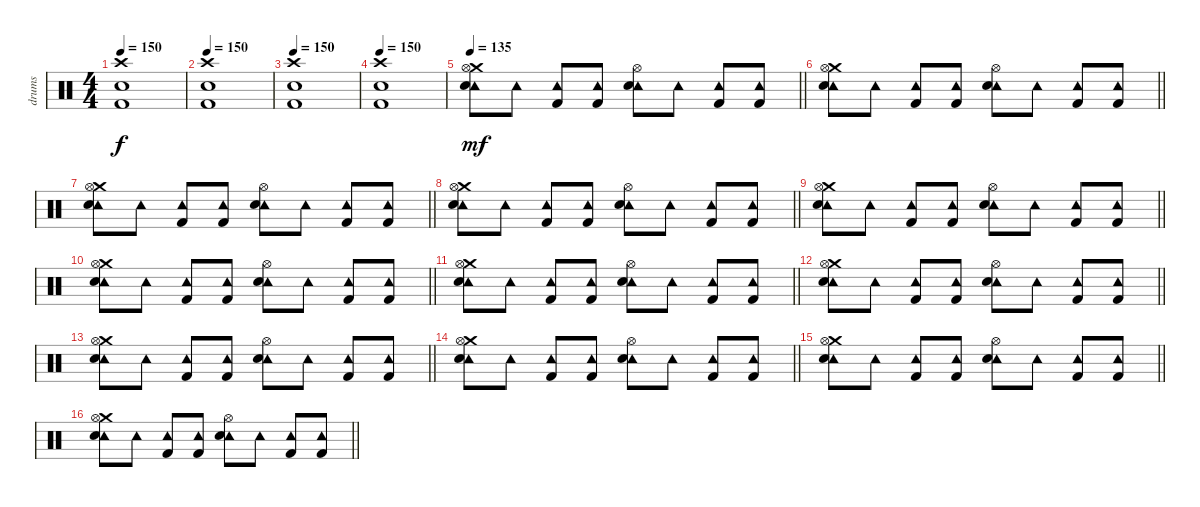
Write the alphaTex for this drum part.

\track ("drums" "drums") {instrument percussion}
\staff {score}
\articulation defaults
\ts (4 4)
\tempo 150
\clef neutral
\ks c
("Crash high (hit)" "Snare (hit) 2" "Kick (hit) 2").1{dy f} |
\tempo 150
("Crash high (hit)" "Snare (hit) 2" "Kick (hit) 2").1 |
\tempo 150
("Crash high (hit)" "Snare (hit) 2" "Kick (hit) 2").1 |
\tempo 150
("Crash high (hit)" "Snare (hit) 2" "Kick (hit) 2").1 |
\tempo 135
\barLineRight lightlight
("Tambourine (hit)" "Crash medium (hit)" "Hi-Hat (open)" "Electric Snare (hit)").8{dy mf} "Tambourine (hit)".8 ("Tambourine (hit)" "Kick (hit) 2").8 ("Tambourine (hit)" "Kick (hit) 2").8 ("Tambourine (hit)" "Hi-Hat (open)" "Electric Snare (hit)").8 "Tambourine (hit)".8 ("Tambourine (hit)" "Kick (hit) 2").8 ("Tambourine (hit)" "Kick (hit) 2").8 |
\barLineRight lightlight
("Tambourine (hit)" "Crash medium (hit)" "Hi-Hat (open)" "Electric Snare (hit)").8 "Tambourine (hit)".8 ("Tambourine (hit)" "Kick (hit) 2").8 ("Tambourine (hit)" "Kick (hit) 2").8 ("Tambourine (hit)" "Hi-Hat (open)" "Electric Snare (hit)").8 "Tambourine (hit)".8 ("Tambourine (hit)" "Kick (hit) 2").8 ("Tambourine (hit)" "Kick (hit) 2").8 |
\barLineRight lightlight
("Tambourine (hit)" "Crash medium (hit)" "Hi-Hat (open)" "Electric Snare (hit)").8 "Tambourine (hit)".8 ("Tambourine (hit)" "Kick (hit) 2").8 ("Tambourine (hit)" "Kick (hit) 2").8 ("Tambourine (hit)" "Hi-Hat (open)" "Electric Snare (hit)").8 "Tambourine (hit)".8 ("Tambourine (hit)" "Kick (hit) 2").8 ("Tambourine (hit)" "Kick (hit) 2").8 |
\barLineRight lightlight
("Tambourine (hit)" "Crash medium (hit)" "Hi-Hat (open)" "Electric Snare (hit)").8 "Tambourine (hit)".8 ("Tambourine (hit)" "Kick (hit) 2").8 ("Tambourine (hit)" "Kick (hit) 2").8 ("Tambourine (hit)" "Hi-Hat (open)" "Electric Snare (hit)").8 "Tambourine (hit)".8 ("Tambourine (hit)" "Kick (hit) 2").8 ("Tambourine (hit)" "Kick (hit) 2").8 |
\barLineRight lightlight
("Tambourine (hit)" "Crash medium (hit)" "Hi-Hat (open)" "Electric Snare (hit)").8 "Tambourine (hit)".8 ("Tambourine (hit)" "Kick (hit) 2").8 ("Tambourine (hit)" "Kick (hit) 2").8 ("Tambourine (hit)" "Hi-Hat (open)" "Electric Snare (hit)").8 "Tambourine (hit)".8 ("Tambourine (hit)" "Kick (hit) 2").8 ("Tambourine (hit)" "Kick (hit) 2").8 |
\barLineRight lightlight
("Tambourine (hit)" "Crash medium (hit)" "Hi-Hat (open)" "Electric Snare (hit)").8 "Tambourine (hit)".8 ("Tambourine (hit)" "Kick (hit) 2").8 ("Tambourine (hit)" "Kick (hit) 2").8 ("Tambourine (hit)" "Hi-Hat (open)" "Electric Snare (hit)").8 "Tambourine (hit)".8 ("Tambourine (hit)" "Kick (hit) 2").8 ("Tambourine (hit)" "Kick (hit) 2").8 |
\barLineRight lightlight
("Tambourine (hit)" "Crash medium (hit)" "Hi-Hat (open)" "Electric Snare (hit)").8 "Tambourine (hit)".8 ("Tambourine (hit)" "Kick (hit) 2").8 ("Tambourine (hit)" "Kick (hit) 2").8 ("Tambourine (hit)" "Hi-Hat (open)" "Electric Snare (hit)").8 "Tambourine (hit)".8 ("Tambourine (hit)" "Kick (hit) 2").8 ("Tambourine (hit)" "Kick (hit) 2").8 |
\barLineRight lightlight
("Tambourine (hit)" "Crash medium (hit)" "Hi-Hat (open)" "Electric Snare (hit)").8 "Tambourine (hit)".8 ("Tambourine (hit)" "Kick (hit) 2").8 ("Tambourine (hit)" "Kick (hit) 2").8 ("Tambourine (hit)" "Hi-Hat (open)" "Electric Snare (hit)").8 "Tambourine (hit)".8 ("Tambourine (hit)" "Kick (hit) 2").8 ("Tambourine (hit)" "Kick (hit) 2").8 |
\barLineRight lightlight
("Tambourine (hit)" "Crash medium (hit)" "Hi-Hat (open)" "Electric Snare (hit)").8 "Tambourine (hit)".8 ("Tambourine (hit)" "Kick (hit) 2").8 ("Tambourine (hit)" "Kick (hit) 2").8 ("Tambourine (hit)" "Hi-Hat (open)" "Electric Snare (hit)").8 "Tambourine (hit)".8 ("Tambourine (hit)" "Kick (hit) 2").8 ("Tambourine (hit)" "Kick (hit) 2").8 |
\barLineRight lightlight
("Tambourine (hit)" "Crash medium (hit)" "Hi-Hat (open)" "Electric Snare (hit)").8 "Tambourine (hit)".8 ("Tambourine (hit)" "Kick (hit) 2").8 ("Tambourine (hit)" "Kick (hit) 2").8 ("Tambourine (hit)" "Hi-Hat (open)" "Electric Snare (hit)").8 "Tambourine (hit)".8 ("Tambourine (hit)" "Kick (hit) 2").8 ("Tambourine (hit)" "Kick (hit) 2").8 |
\barLineRight lightlight
("Tambourine (hit)" "Crash medium (hit)" "Hi-Hat (open)" "Electric Snare (hit)").8 "Tambourine (hit)".8 ("Tambourine (hit)" "Kick (hit) 2").8 ("Tambourine (hit)" "Kick (hit) 2").8 ("Tambourine (hit)" "Hi-Hat (open)" "Electric Snare (hit)").8 "Tambourine (hit)".8 ("Tambourine (hit)" "Kick (hit) 2").8 ("Tambourine (hit)" "Kick (hit) 2").8 |
\barLineRight lightlight
("Tambourine (hit)" "Crash medium (hit)" "Hi-Hat (open)" "Electric Snare (hit)").8 "Tambourine (hit)".8 ("Tambourine (hit)" "Kick (hit) 2").8 ("Tambourine (hit)" "Kick (hit) 2").8 ("Tambourine (hit)" "Hi-Hat (open)" "Electric Snare (hit)").8 "Tambourine (hit)".8 ("Tambourine (hit)" "Kick (hit) 2").8 ("Tambourine (hit)" "Kick (hit) 2").8
